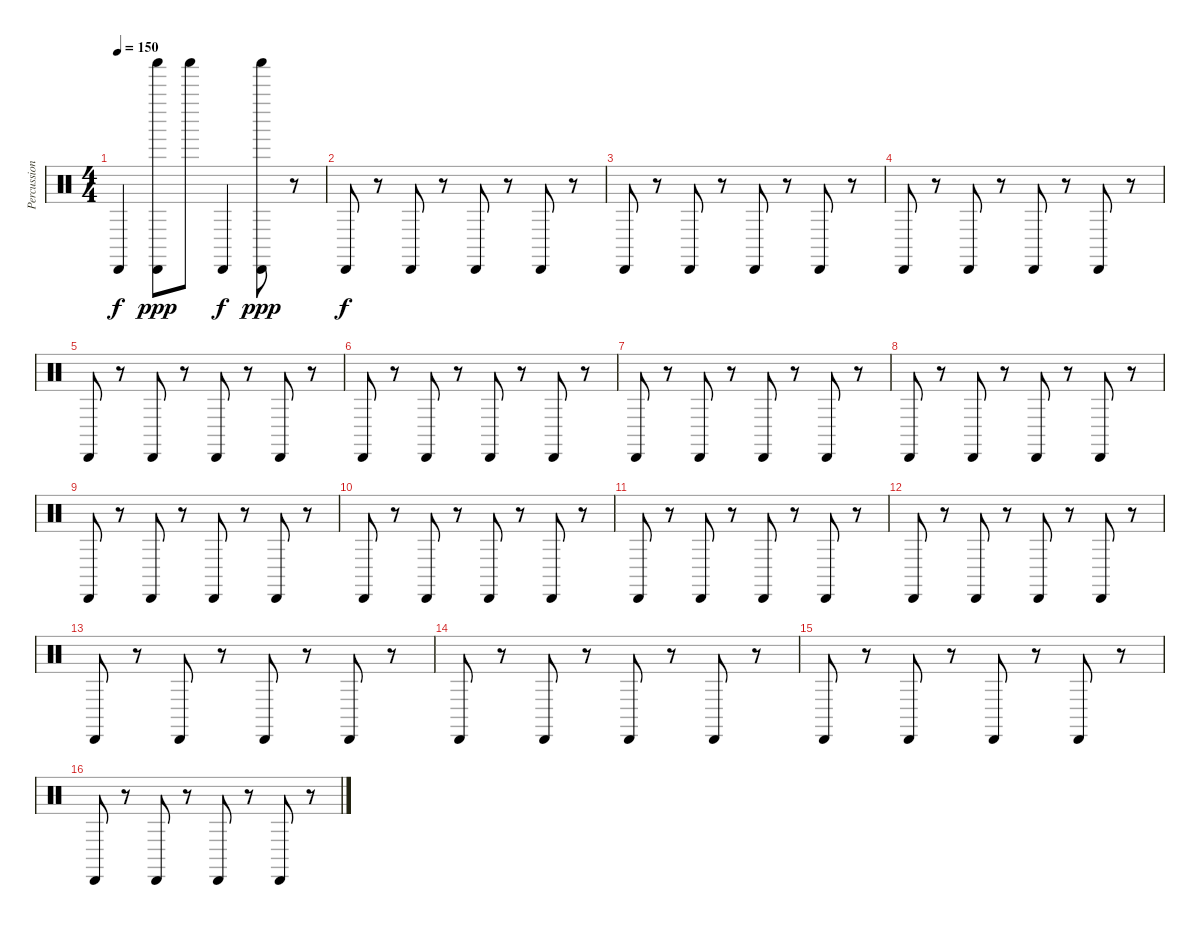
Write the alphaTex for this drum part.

\track ("Percussion1" "Percussion") {instrument percussion}
\staff {score}
\articulation defaults
\ts (4 4)
\tempo 150
\clef neutral
\ks aminor "Cabasa (hit)".4{dy f}
("Shaker (hit)" "Cabasa (hit)").8{dy ppp} "Shaker (hit)".8 "Cabasa (hit)".4{dy f} ("Cabasa (hit)" "Shaker (hit)").8{dy ppp} r.8 |
"Cabasa (hit)".8{dy f} r.8 "Cabasa (hit)".8 r.8 "Cabasa (hit)".8 r.8 "Cabasa (hit)".8 r.8 |
"Cabasa (hit)".8 r.8 "Cabasa (hit)".8 r.8 "Cabasa (hit)".8 r.8 "Cabasa (hit)".8 r.8 |
"Cabasa (hit)".8 r.8 "Cabasa (hit)".8 r.8 "Cabasa (hit)".8 r.8 "Cabasa (hit)".8 r.8 |
"Cabasa (hit)".8 r.8 "Cabasa (hit)".8 r.8 "Cabasa (hit)".8 r.8 "Cabasa (hit)".8 r.8 |
"Cabasa (hit)".8 r.8 "Cabasa (hit)".8 r.8 "Cabasa (hit)".8 r.8 "Cabasa (hit)".8 r.8 |
"Cabasa (hit)".8 r.8 "Cabasa (hit)".8 r.8 "Cabasa (hit)".8 r.8 "Cabasa (hit)".8 r.8 |
"Cabasa (hit)".8 r.8 "Cabasa (hit)".8 r.8 "Cabasa (hit)".8 r.8 "Cabasa (hit)".8 r.8 |
"Cabasa (hit)".8 r.8 "Cabasa (hit)".8 r.8 "Cabasa (hit)".8 r.8 "Cabasa (hit)".8 r.8 |
"Cabasa (hit)".8 r.8 "Cabasa (hit)".8 r.8 "Cabasa (hit)".8 r.8 "Cabasa (hit)".8 r.8 |
"Cabasa (hit)".8 r.8 "Cabasa (hit)".8 r.8 "Cabasa (hit)".8 r.8 "Cabasa (hit)".8 r.8 |
"Cabasa (hit)".8 r.8 "Cabasa (hit)".8 r.8 "Cabasa (hit)".8 r.8 "Cabasa (hit)".8 r.8 |
"Cabasa (hit)".8 r.8 "Cabasa (hit)".8 r.8 "Cabasa (hit)".8 r.8 "Cabasa (hit)".8 r.8 |
"Cabasa (hit)".8 r.8 "Cabasa (hit)".8 r.8 "Cabasa (hit)".8 r.8 "Cabasa (hit)".8 r.8 |
"Cabasa (hit)".8 r.8 "Cabasa (hit)".8 r.8 "Cabasa (hit)".8 r.8 "Cabasa (hit)".8 r.8 |
"Cabasa (hit)".8 r.8 "Cabasa (hit)".8 r.8 "Cabasa (hit)".8 r.8 "Cabasa (hit)".8 r.8
